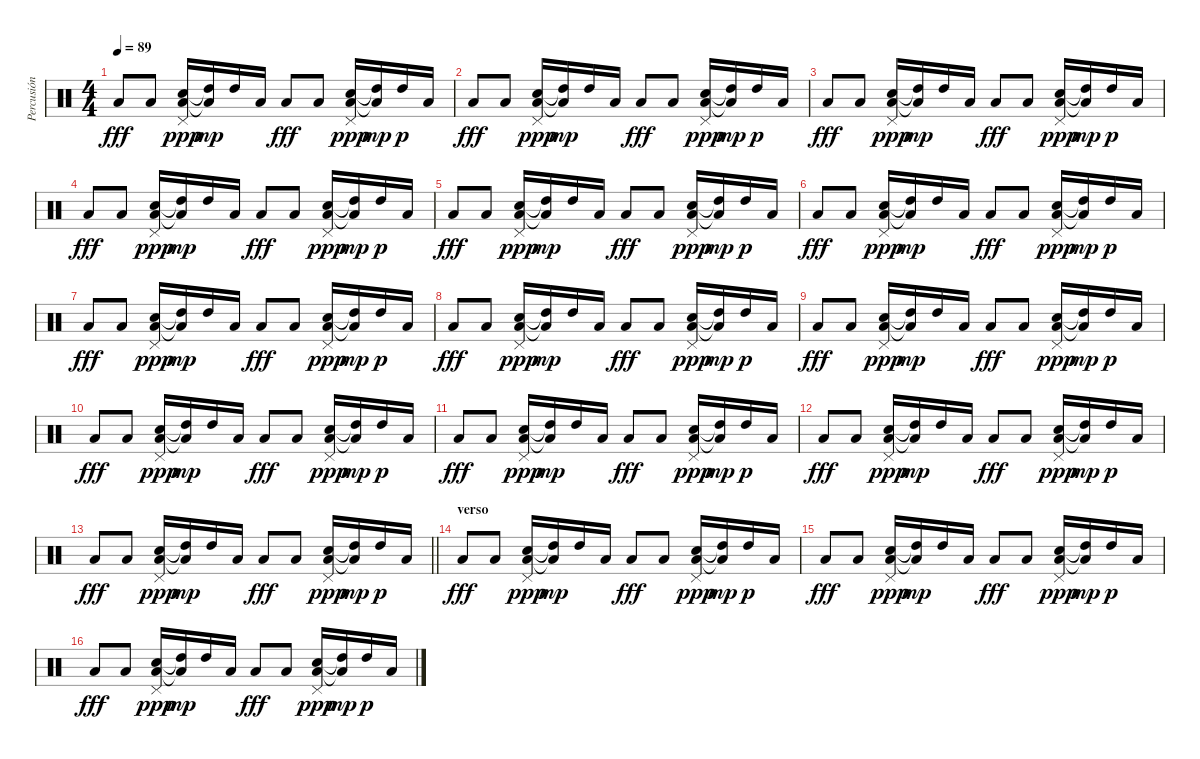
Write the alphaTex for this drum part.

\track ("Percusión" "Percusión") {instrument percussion}
\staff {score}
\articulation defaults
\ts (4 4)
\tempo 89
\clef neutral
\ks c "Low Floor Tom (hit)".8{dy fff} "Low Floor Tom (hit)".8
("Electric Snare (hit)" "Low Floor Tom (hit)" "Pedal Hi-Hat (hit)").16{dy ppp} ("High Tom (hit)"{t} "Low Floor Tom (hit)"{t}).16{dy mp} "High Tom (hit)".16 "Low Tom (hit)".16 "Low Floor Tom (hit)".8{dy fff} "Low Floor Tom (hit)".8 ("Electric Snare (hit)" "Low Floor Tom (hit)" "Pedal Hi-Hat (hit)").16{dy ppp} ("High Tom (hit)"{t} "Low Floor Tom (hit)"{t}).16{dy mp} "High Tom (hit)".16{dy p} "Low Tom (hit)".16 |
"Low Floor Tom (hit)".8{dy fff} "Low Floor Tom (hit)".8 ("Electric Snare (hit)" "Low Floor Tom (hit)" "Pedal Hi-Hat (hit)").16{dy ppp} ("High Tom (hit)"{t} "Low Floor Tom (hit)"{t}).16{dy mp} "High Tom (hit)".16 "Low Tom (hit)".16 "Low Floor Tom (hit)".8{dy fff} "Low Floor Tom (hit)".8 ("Electric Snare (hit)" "Low Floor Tom (hit)" "Pedal Hi-Hat (hit)").16{dy ppp} ("High Tom (hit)"{t} "Low Floor Tom (hit)"{t}).16{dy mp} "High Tom (hit)".16{dy p} "Low Tom (hit)".16 |
"Low Floor Tom (hit)".8{dy fff} "Low Floor Tom (hit)".8 ("Electric Snare (hit)" "Low Floor Tom (hit)" "Pedal Hi-Hat (hit)").16{dy ppp} ("High Tom (hit)"{t} "Low Floor Tom (hit)"{t}).16{dy mp} "High Tom (hit)".16 "Low Tom (hit)".16 "Low Floor Tom (hit)".8{dy fff} "Low Floor Tom (hit)".8 ("Electric Snare (hit)" "Low Floor Tom (hit)" "Pedal Hi-Hat (hit)").16{dy ppp} ("High Tom (hit)"{t} "Low Floor Tom (hit)"{t}).16{dy mp} "High Tom (hit)".16{dy p} "Low Tom (hit)".16 |
"Low Floor Tom (hit)".8{dy fff} "Low Floor Tom (hit)".8 ("Electric Snare (hit)" "Low Floor Tom (hit)" "Pedal Hi-Hat (hit)").16{dy ppp} ("High Tom (hit)"{t} "Low Floor Tom (hit)"{t}).16{dy mp} "High Tom (hit)".16 "Low Tom (hit)".16 "Low Floor Tom (hit)".8{dy fff} "Low Floor Tom (hit)".8 ("Electric Snare (hit)" "Low Floor Tom (hit)" "Pedal Hi-Hat (hit)").16{dy ppp} ("High Tom (hit)"{t} "Low Floor Tom (hit)"{t}).16{dy mp} "High Tom (hit)".16{dy p} "Low Tom (hit)".16 |
"Low Floor Tom (hit)".8{dy fff} "Low Floor Tom (hit)".8 ("Electric Snare (hit)" "Low Floor Tom (hit)" "Pedal Hi-Hat (hit)").16{dy ppp} ("High Tom (hit)"{t} "Low Floor Tom (hit)"{t}).16{dy mp} "High Tom (hit)".16 "Low Tom (hit)".16 "Low Floor Tom (hit)".8{dy fff} "Low Floor Tom (hit)".8 ("Electric Snare (hit)" "Low Floor Tom (hit)" "Pedal Hi-Hat (hit)").16{dy ppp} ("High Tom (hit)"{t} "Low Floor Tom (hit)"{t}).16{dy mp} "High Tom (hit)".16{dy p} "Low Tom (hit)".16 |
"Low Floor Tom (hit)".8{dy fff} "Low Floor Tom (hit)".8 ("Electric Snare (hit)" "Low Floor Tom (hit)" "Pedal Hi-Hat (hit)").16{dy ppp} ("High Tom (hit)"{t} "Low Floor Tom (hit)"{t}).16{dy mp} "High Tom (hit)".16 "Low Tom (hit)".16 "Low Floor Tom (hit)".8{dy fff} "Low Floor Tom (hit)".8 ("Electric Snare (hit)" "Low Floor Tom (hit)" "Pedal Hi-Hat (hit)").16{dy ppp} ("High Tom (hit)"{t} "Low Floor Tom (hit)"{t}).16{dy mp} "High Tom (hit)".16{dy p} "Low Tom (hit)".16 |
"Low Floor Tom (hit)".8{dy fff} "Low Floor Tom (hit)".8 ("Electric Snare (hit)" "Low Floor Tom (hit)" "Pedal Hi-Hat (hit)").16{dy ppp} ("High Tom (hit)"{t} "Low Floor Tom (hit)"{t}).16{dy mp} "High Tom (hit)".16 "Low Tom (hit)".16 "Low Floor Tom (hit)".8{dy fff} "Low Floor Tom (hit)".8 ("Electric Snare (hit)" "Low Floor Tom (hit)" "Pedal Hi-Hat (hit)").16{dy ppp} ("High Tom (hit)"{t} "Low Floor Tom (hit)"{t}).16{dy mp} "High Tom (hit)".16{dy p} "Low Tom (hit)".16 |
"Low Floor Tom (hit)".8{dy fff} "Low Floor Tom (hit)".8 ("Electric Snare (hit)" "Low Floor Tom (hit)" "Pedal Hi-Hat (hit)").16{dy ppp} ("High Tom (hit)"{t} "Low Floor Tom (hit)"{t}).16{dy mp} "High Tom (hit)".16 "Low Tom (hit)".16 "Low Floor Tom (hit)".8{dy fff} "Low Floor Tom (hit)".8 ("Electric Snare (hit)" "Low Floor Tom (hit)" "Pedal Hi-Hat (hit)").16{dy ppp} ("High Tom (hit)"{t} "Low Floor Tom (hit)"{t}).16{dy mp} "High Tom (hit)".16{dy p} "Low Tom (hit)".16 |
"Low Floor Tom (hit)".8{dy fff} "Low Floor Tom (hit)".8 ("Electric Snare (hit)" "Low Floor Tom (hit)" "Pedal Hi-Hat (hit)").16{dy ppp} ("High Tom (hit)"{t} "Low Floor Tom (hit)"{t}).16{dy mp} "High Tom (hit)".16 "Low Tom (hit)".16 "Low Floor Tom (hit)".8{dy fff} "Low Floor Tom (hit)".8 ("Electric Snare (hit)" "Low Floor Tom (hit)" "Pedal Hi-Hat (hit)").16{dy ppp} ("High Tom (hit)"{t} "Low Floor Tom (hit)"{t}).16{dy mp} "High Tom (hit)".16{dy p} "Low Tom (hit)".16 |
"Low Floor Tom (hit)".8{dy fff} "Low Floor Tom (hit)".8 ("Electric Snare (hit)" "Low Floor Tom (hit)" "Pedal Hi-Hat (hit)").16{dy ppp} ("High Tom (hit)"{t} "Low Floor Tom (hit)"{t}).16{dy mp} "High Tom (hit)".16 "Low Tom (hit)".16 "Low Floor Tom (hit)".8{dy fff} "Low Floor Tom (hit)".8 ("Electric Snare (hit)" "Low Floor Tom (hit)" "Pedal Hi-Hat (hit)").16{dy ppp} ("High Tom (hit)"{t} "Low Floor Tom (hit)"{t}).16{dy mp} "High Tom (hit)".16{dy p} "Low Tom (hit)".16 |
"Low Floor Tom (hit)".8{dy fff} "Low Floor Tom (hit)".8 ("Electric Snare (hit)" "Low Floor Tom (hit)" "Pedal Hi-Hat (hit)").16{dy ppp} ("High Tom (hit)"{t} "Low Floor Tom (hit)"{t}).16{dy mp} "High Tom (hit)".16 "Low Tom (hit)".16 "Low Floor Tom (hit)".8{dy fff} "Low Floor Tom (hit)".8 ("Electric Snare (hit)" "Low Floor Tom (hit)" "Pedal Hi-Hat (hit)").16{dy ppp} ("High Tom (hit)"{t} "Low Floor Tom (hit)"{t}).16{dy mp} "High Tom (hit)".16{dy p} "Low Tom (hit)".16 |
"Low Floor Tom (hit)".8{dy fff} "Low Floor Tom (hit)".8 ("Electric Snare (hit)" "Low Floor Tom (hit)" "Pedal Hi-Hat (hit)").16{dy ppp} ("High Tom (hit)"{t} "Low Floor Tom (hit)"{t}).16{dy mp} "High Tom (hit)".16 "Low Tom (hit)".16 "Low Floor Tom (hit)".8{dy fff} "Low Floor Tom (hit)".8 ("Electric Snare (hit)" "Low Floor Tom (hit)" "Pedal Hi-Hat (hit)").16{dy ppp} ("High Tom (hit)"{t} "Low Floor Tom (hit)"{t}).16{dy mp} "High Tom (hit)".16{dy p} "Low Tom (hit)".16 |
\barLineRight lightlight "Low Floor Tom (hit)".8{dy fff} "Low Floor Tom (hit)".8
("Electric Snare (hit)" "Low Floor Tom (hit)" "Pedal Hi-Hat (hit)").16{dy ppp} ("High Tom (hit)"{t} "Low Floor Tom (hit)"{t}).16{dy mp} "High Tom (hit)".16 "Low Tom (hit)".16 "Low Floor Tom (hit)".8{dy fff} "Low Floor Tom (hit)".8 ("Electric Snare (hit)" "Low Floor Tom (hit)" "Pedal Hi-Hat (hit)").16{dy ppp} ("High Tom (hit)"{t} "Low Floor Tom (hit)"{t}).16{dy mp} "High Tom (hit)".16{dy p} "Low Tom (hit)".16 |
\section ("" "verso")
"Low Floor Tom (hit)".8{dy fff} "Low Floor Tom (hit)".8 ("Electric Snare (hit)" "Low Floor Tom (hit)" "Pedal Hi-Hat (hit)").16{dy ppp} ("High Tom (hit)"{t} "Low Floor Tom (hit)"{t}).16{dy mp} "High Tom (hit)".16 "Low Tom (hit)".16 "Low Floor Tom (hit)".8{dy fff} "Low Floor Tom (hit)".8 ("Electric Snare (hit)" "Low Floor Tom (hit)" "Pedal Hi-Hat (hit)").16{dy ppp} ("High Tom (hit)"{t} "Low Floor Tom (hit)"{t}).16{dy mp} "High Tom (hit)".16{dy p} "Low Tom (hit)".16 |
"Low Floor Tom (hit)".8{dy fff} "Low Floor Tom (hit)".8 ("Electric Snare (hit)" "Low Floor Tom (hit)" "Pedal Hi-Hat (hit)").16{dy ppp} ("High Tom (hit)"{t} "Low Floor Tom (hit)"{t}).16{dy mp} "High Tom (hit)".16 "Low Tom (hit)".16 "Low Floor Tom (hit)".8{dy fff} "Low Floor Tom (hit)".8 ("Electric Snare (hit)" "Low Floor Tom (hit)" "Pedal Hi-Hat (hit)").16{dy ppp} ("High Tom (hit)"{t} "Low Floor Tom (hit)"{t}).16{dy mp} "High Tom (hit)".16{dy p} "Low Tom (hit)".16 |
"Low Floor Tom (hit)".8{dy fff} "Low Floor Tom (hit)".8 ("Electric Snare (hit)" "Low Floor Tom (hit)" "Pedal Hi-Hat (hit)").16{dy ppp} ("High Tom (hit)"{t} "Low Floor Tom (hit)"{t}).16{dy mp} "High Tom (hit)".16 "Low Tom (hit)".16 "Low Floor Tom (hit)".8{dy fff} "Low Floor Tom (hit)".8 ("Electric Snare (hit)" "Low Floor Tom (hit)" "Pedal Hi-Hat (hit)").16{dy ppp} ("High Tom (hit)"{t} "Low Floor Tom (hit)"{t}).16{dy mp} "High Tom (hit)".16{dy p} "Low Tom (hit)".16
